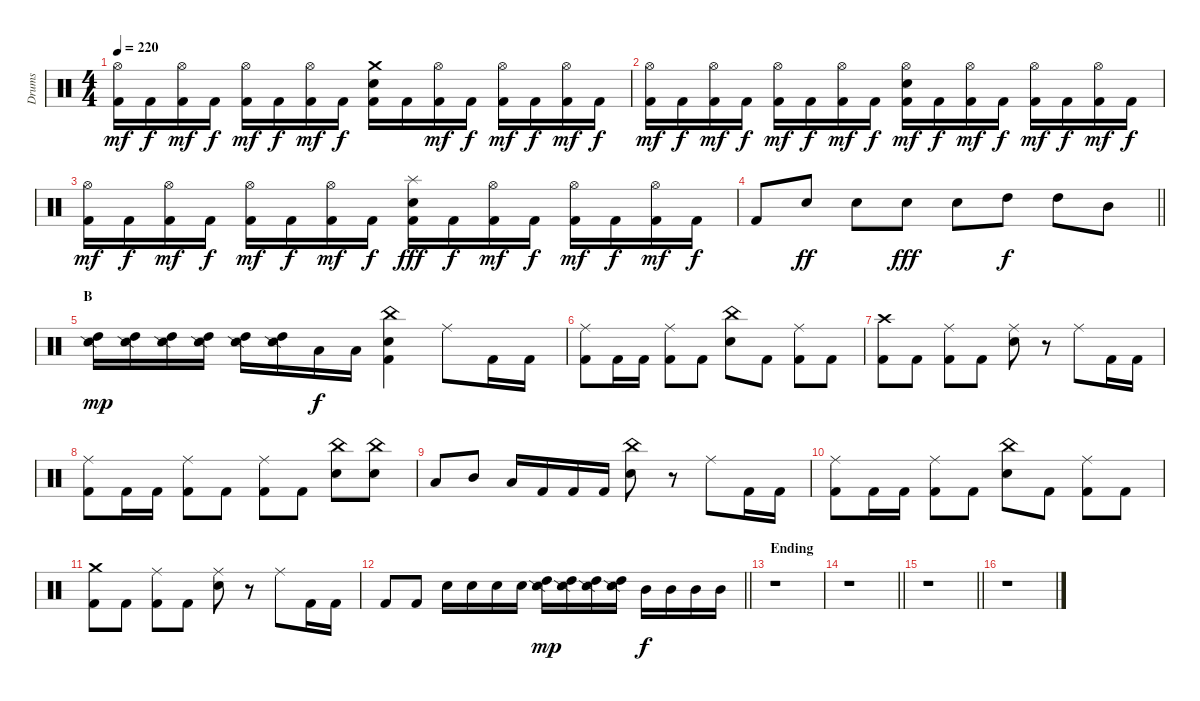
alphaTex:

\track ("Drums" "Drums") {instrument percussion}
\staff {score}
\articulation defaults
\ts (4 4)
\tempo 220
\clef neutral
\ks c
("Hi-Hat (open)" "Kick (hit) 2").16{dy mf} "Kick (hit) 2".16{dy f} ("Hi-Hat (open)" "Kick (hit) 2").16{dy mf} "Kick (hit) 2".16{dy f} ("Hi-Hat (open)" "Kick (hit) 2").16{dy mf} "Kick (hit) 2".16{dy f} ("Hi-Hat (open)" "Kick (hit) 2").16{dy mf} "Kick (hit) 2".16{dy f} ("Crash medium (hit)" "Electric Snare (hit)" "Kick (hit) 2").16 "Kick (hit) 2".16 ("Hi-Hat (open)" "Kick (hit) 2").16{dy mf} "Kick (hit) 2".16{dy f} ("Hi-Hat (open)" "Kick (hit) 2").16{dy mf} "Kick (hit) 2".16{dy f} ("Hi-Hat (open)" "Kick (hit) 2").16{dy mf} "Kick (hit) 2".16{dy f} |
("Hi-Hat (open)" "Kick (hit) 2").16{dy mf} "Kick (hit) 2".16{dy f} ("Hi-Hat (open)" "Kick (hit) 2").16{dy mf} "Kick (hit) 2".16{dy f} ("Hi-Hat (open)" "Kick (hit) 2").16{dy mf} "Kick (hit) 2".16{dy f} ("Hi-Hat (open)" "Kick (hit) 2").16{dy mf} "Kick (hit) 2".16{dy f} ("Hi-Hat (open)" "Electric Snare (hit)" "Kick (hit) 2").16{dy mf} "Kick (hit) 2".16{dy f} ("Hi-Hat (open)" "Kick (hit) 2").16{dy mf} "Kick (hit) 2".16{dy f} ("Hi-Hat (open)" "Kick (hit) 2").16{dy mf} "Kick (hit) 2".16{dy f} ("Hi-Hat (open)" "Kick (hit) 2").16{dy mf} "Kick (hit) 2".16{dy f} |
("Hi-Hat (open)" "Kick (hit) 2").16{dy mf} "Kick (hit) 2".16{dy f} ("Hi-Hat (open)" "Kick (hit) 2").16{dy mf} "Kick (hit) 2".16{dy f} ("Hi-Hat (open)" "Kick (hit) 2").16{dy mf} "Kick (hit) 2".16{dy f} ("Hi-Hat (open)" "Kick (hit) 2").16{dy mf} "Kick (hit) 2".16{dy f} ("Splash (hit)" "Electric Snare (hit)" "Kick (hit) 2").16{dy fff} "Kick (hit) 2".16{dy f} ("Hi-Hat (open)" "Kick (hit) 2").16{dy mf} "Kick (hit) 2".16{dy f} ("Hi-Hat (open)" "Kick (hit) 2").16{dy mf} "Kick (hit) 2".16{dy f} ("Hi-Hat (open)" "Kick (hit) 2").16{dy mf} "Kick (hit) 2".16{dy f} |
\barLineRight lightlight "Kick (hit) 2".8 "Electric Snare (hit)".8{dy ff} "Electric Snare (hit)".8 "Electric Snare (hit)".8{dy fff} "Electric Snare (hit)".8 "High Tom (hit)".8{dy f} "High Tom (hit)".8 "Mid Tom (hit)".8
|
\section ("" "B")
("High Tom (hit)" "Snare (side stick) 2").16{dy mp} ("High Tom (hit)" "Snare (side stick) 2").16 ("High Tom (hit)" "Snare (side stick) 2").16 ("High Tom (hit)" "Snare (side stick) 2").16 ("High Tom (hit)" "Snare (side stick) 2").16 ("High Tom (hit)" "Snare (side stick) 2").16 "Low Tom (hit)".16{dy f} "Low Tom (hit)".16 ("China (hit)" "Electric Snare (hit)" "Kick (hit) 2").4 "Ride (middle)".8 "Kick (hit) 2".16 "Kick (hit) 2".16 |
("Ride (middle)" "Kick (hit) 2").8 "Kick (hit) 2".16 "Kick (hit) 2".16 ("Ride (middle)" "Kick (hit) 2").8 "Kick (hit) 2".8 ("China (hit)" "Electric Snare (hit)").8 "Kick (hit) 2".8 ("Ride (middle)" "Kick (hit) 2").8 "Kick (hit) 2".8 |
("Crash high (hit)" "Kick (hit) 2").8 "Kick (hit) 2".8 ("Ride (middle)" "Kick (hit) 2").8 "Kick (hit) 2".8 ("Ride (middle)" "Electric Snare (hit)").8 r.8 "Ride (middle)".8 "Kick (hit) 2".16 "Kick (hit) 2".16 |
("Ride (middle)" "Kick (hit) 2").8 "Kick (hit) 2".16 "Kick (hit) 2".16 ("Ride (middle)" "Kick (hit) 2").8 "Kick (hit) 2".8 ("Ride (middle)" "Kick (hit) 2").8 "Kick (hit) 2".8 ("China (hit)" "Electric Snare (hit)").8 ("China (hit)" "Electric Snare (hit)").8 |
"Low Tom (hit)".8 "Mid Tom (hit)".8 "Low Tom (hit)".16 "Kick (hit) 2".16 "Kick (hit) 2".16 "Kick (hit) 2".16 ("China (hit)" "Electric Snare (hit)").8 r.8 "Ride (middle)".8 "Kick (hit) 2".16 "Kick (hit) 2".16 |
("Ride (middle)" "Kick (hit) 2").8 "Kick (hit) 2".16 "Kick (hit) 2".16 ("Ride (middle)" "Kick (hit) 2").8 "Kick (hit) 2".8 ("China (hit)" "Electric Snare (hit)").8 "Kick (hit) 2".8 ("Ride (middle)" "Kick (hit) 2").8 "Kick (hit) 2".8 |
("Crash medium (hit)" "Kick (hit) 2").8 "Kick (hit) 2".8 ("Ride (middle)" "Kick (hit) 2").8 "Kick (hit) 2".8 ("Ride (middle)" "Electric Snare (hit)").8 r.8 "Ride (middle)".8 "Kick (hit) 2".16 "Kick (hit) 2".16 |
\barLineRight lightlight "Kick (hit) 2".8 "Kick (hit) 2".8 "Electric Snare (hit)".16 "Electric Snare (hit)".16 "Electric Snare (hit)".16 "Electric Snare (hit)".16
("High Tom (hit)" "Snare (side stick) 2").16{dy mp} ("High Tom (hit)" "Snare (side stick) 2").16 ("High Tom (hit)" "Snare (side stick) 2").16 ("High Tom (hit)" "Snare (side stick) 2").16 "Mid Tom (hit)".16{dy f} "Mid Tom (hit)".16 "Mid Tom (hit)".16 "Mid Tom (hit)".16 |
\section ("" "Ending")
r.1 |
\barLineRight lightlight
r.1 |
\barLineRight lightlight
r.1 |
r.1
